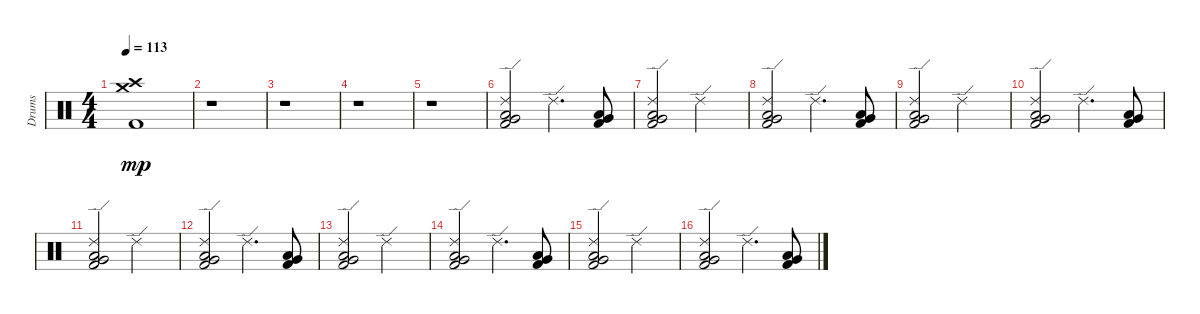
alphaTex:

\track ("Drums" "Drums") {instrument percussion}
\staff {score}
\articulation defaults
\ts (4 4)
\tempo 113
\clef neutral
\ks c
("Kick (hit) 2" "Crash high (hit)" "Crash medium (hit)").1{dy mp} |
r.1 |
r.1 |
r.1 |
r.1 |
("Kick (hit) 2" "Low Floor Tom (hit)" "Very Low Tom (hit)" "Ride (edge) 2").2 "Ride (edge) 2".4{d} ("Kick (hit) 2" "Low Floor Tom (hit)" "Very Low Tom (hit)").8 |
("Kick (hit) 2" "Low Floor Tom (hit)" "Very Low Tom (hit)" "Ride (edge) 2").2 "Ride (edge) 2".2 |
("Kick (hit) 2" "Low Floor Tom (hit)" "Very Low Tom (hit)" "Ride (edge) 2").2 "Ride (edge) 2".4{d} ("Kick (hit) 2" "Low Floor Tom (hit)" "Very Low Tom (hit)").8 |
("Kick (hit) 2" "Low Floor Tom (hit)" "Very Low Tom (hit)" "Ride (edge) 2").2 "Ride (edge) 2".2 |
("Kick (hit) 2" "Low Floor Tom (hit)" "Very Low Tom (hit)" "Ride (edge) 2").2 "Ride (edge) 2".4{d} ("Kick (hit) 2" "Low Floor Tom (hit)" "Very Low Tom (hit)").8 |
("Kick (hit) 2" "Low Floor Tom (hit)" "Very Low Tom (hit)" "Ride (edge) 2").2 "Ride (edge) 2".2 |
("Kick (hit) 2" "Low Floor Tom (hit)" "Very Low Tom (hit)" "Ride (edge) 2").2 "Ride (edge) 2".4{d} ("Kick (hit) 2" "Low Floor Tom (hit)" "Very Low Tom (hit)").8 |
("Kick (hit) 2" "Low Floor Tom (hit)" "Very Low Tom (hit)" "Ride (edge) 2").2 "Ride (edge) 2".2 |
("Kick (hit) 2" "Low Floor Tom (hit)" "Very Low Tom (hit)" "Ride (edge) 2").2 "Ride (edge) 2".4{d} ("Kick (hit) 2" "Low Floor Tom (hit)" "Very Low Tom (hit)").8 |
("Kick (hit) 2" "Low Floor Tom (hit)" "Very Low Tom (hit)" "Ride (edge) 2").2 "Ride (edge) 2".2 |
("Kick (hit) 2" "Low Floor Tom (hit)" "Very Low Tom (hit)" "Ride (edge) 2").2 "Ride (edge) 2".4{d} ("Kick (hit) 2" "Low Floor Tom (hit)" "Very Low Tom (hit)").8
